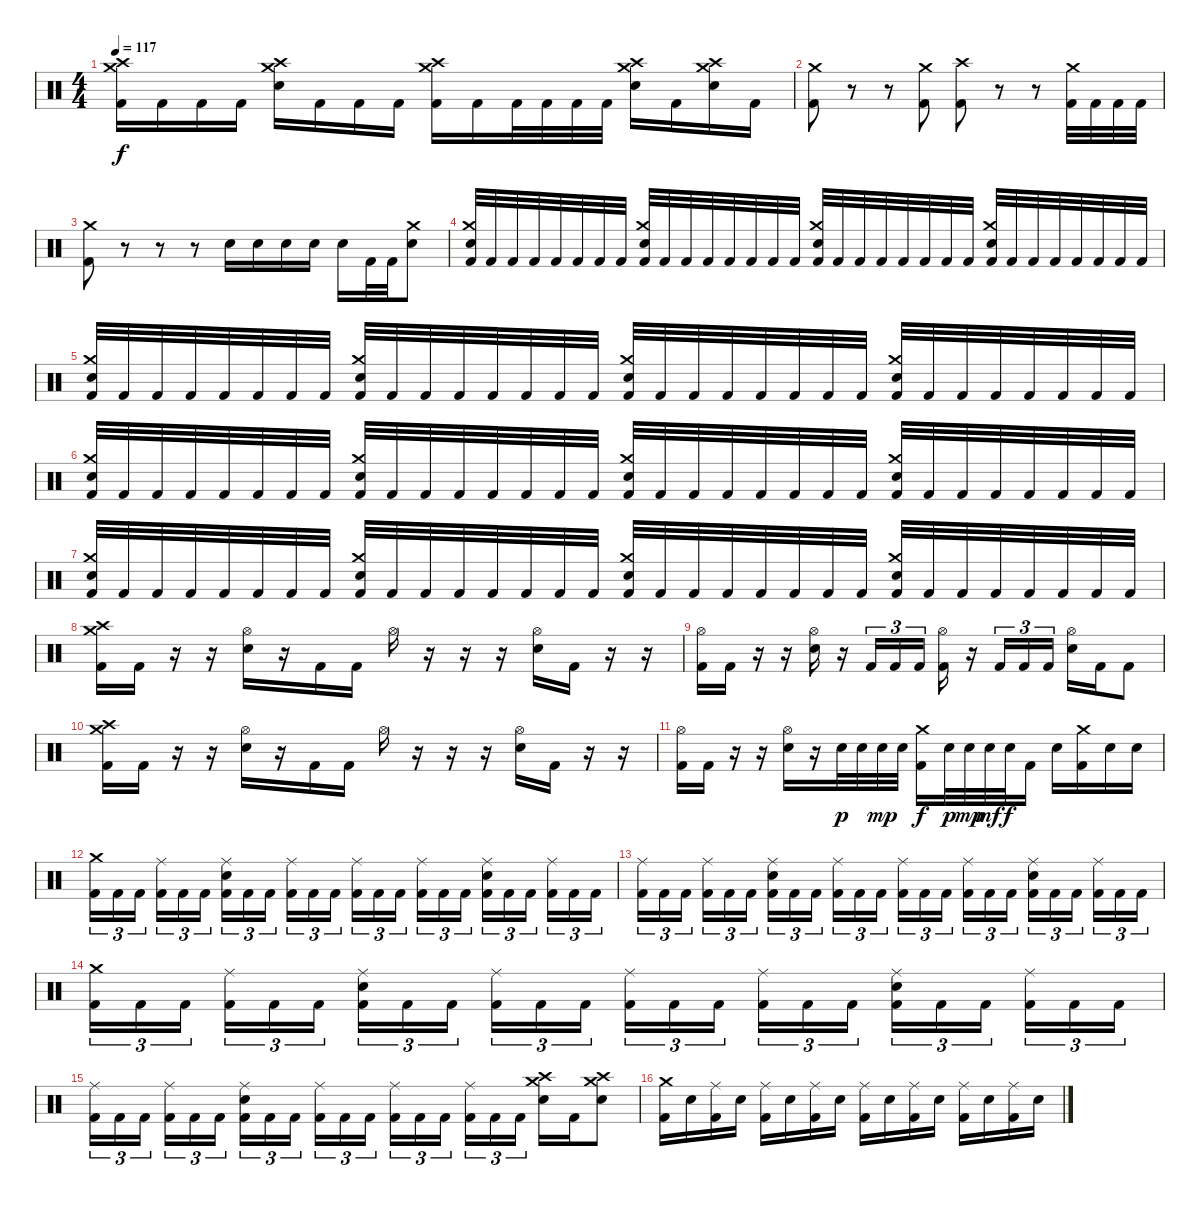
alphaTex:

\track "" {instrument percussion}
\staff {score}
\articulation defaults
\ts (4 4)
\tempo 117
\clef neutral
\ks c
("Kick (hit) 2" "Crash high (hit)" "Crash medium (hit)").16{dy f} "Kick (hit) 2".16 "Kick (hit) 2".16 "Kick (hit) 2".16 ("Electric Snare (hit)" "Crash high (hit)" "Crash medium (hit)").16 "Kick (hit) 2".16 "Kick (hit) 2".16 "Kick (hit) 2".16 ("Kick (hit) 2" "Crash high (hit)" "Crash medium (hit)").16 "Kick (hit) 2".16 "Kick (hit) 2".32 "Kick (hit) 2".32 "Kick (hit) 2".32 "Kick (hit) 2".32 ("Electric Snare (hit)" "Crash high (hit)" "Crash medium (hit)").16 "Kick (hit) 2".16 ("Electric Snare (hit)" "Crash high (hit)" "Crash medium (hit)").16 "Kick (hit) 2".16 |
("Kick (hit) 2" "Crash medium (hit)").8 r.8 r.8 ("Kick (hit) 2" "Crash medium (hit)").8 ("Kick (hit) 2" "Crash high (hit)").8 r.8 r.8 ("Kick (hit) 2" "Crash medium (hit)").32 "Kick (hit) 2".32 "Kick (hit) 2".32 "Kick (hit) 2".32 |
("Kick (hit) 2" "Crash medium (hit)").8 r.8 r.8 r.8 "Electric Snare (hit)".16 "Electric Snare (hit)".16 "Electric Snare (hit)".16 "Electric Snare (hit)".16 "Electric Snare (hit)".16 "Kick (hit) 2".32 "Kick (hit) 2".32 ("Electric Snare (hit)" "Crash medium (hit)").8 |
("Kick (hit) 2" "Electric Snare (hit)" "Crash medium (hit)").32 "Kick (hit) 2".32 "Kick (hit) 2".32 "Kick (hit) 2".32 "Kick (hit) 2".32 "Kick (hit) 2".32 "Kick (hit) 2".32 "Kick (hit) 2".32 ("Kick (hit) 2" "Electric Snare (hit)" "Crash medium (hit)").32 "Kick (hit) 2".32 "Kick (hit) 2".32 "Kick (hit) 2".32 "Kick (hit) 2".32 "Kick (hit) 2".32 "Kick (hit) 2".32 "Kick (hit) 2".32 ("Kick (hit) 2" "Electric Snare (hit)" "Crash medium (hit)").32 "Kick (hit) 2".32 "Kick (hit) 2".32 "Kick (hit) 2".32 "Kick (hit) 2".32 "Kick (hit) 2".32 "Kick (hit) 2".32 "Kick (hit) 2".32 ("Kick (hit) 2" "Electric Snare (hit)" "Crash medium (hit)").32 "Kick (hit) 2".32 "Kick (hit) 2".32 "Kick (hit) 2".32 "Kick (hit) 2".32 "Kick (hit) 2".32 "Kick (hit) 2".32 "Kick (hit) 2".32 |
("Kick (hit) 2" "Electric Snare (hit)" "Crash medium (hit)").32 "Kick (hit) 2".32 "Kick (hit) 2".32 "Kick (hit) 2".32 "Kick (hit) 2".32 "Kick (hit) 2".32 "Kick (hit) 2".32 "Kick (hit) 2".32 ("Kick (hit) 2" "Electric Snare (hit)" "Crash medium (hit)").32 "Kick (hit) 2".32 "Kick (hit) 2".32 "Kick (hit) 2".32 "Kick (hit) 2".32 "Kick (hit) 2".32 "Kick (hit) 2".32 "Kick (hit) 2".32 ("Kick (hit) 2" "Electric Snare (hit)" "Crash medium (hit)").32 "Kick (hit) 2".32 "Kick (hit) 2".32 "Kick (hit) 2".32 "Kick (hit) 2".32 "Kick (hit) 2".32 "Kick (hit) 2".32 "Kick (hit) 2".32 ("Kick (hit) 2" "Electric Snare (hit)" "Crash medium (hit)").32 "Kick (hit) 2".32 "Kick (hit) 2".32 "Kick (hit) 2".32 "Kick (hit) 2".32 "Kick (hit) 2".32 "Kick (hit) 2".32 "Kick (hit) 2".32 |
("Kick (hit) 2" "Electric Snare (hit)" "Crash medium (hit)").32 "Kick (hit) 2".32 "Kick (hit) 2".32 "Kick (hit) 2".32 "Kick (hit) 2".32 "Kick (hit) 2".32 "Kick (hit) 2".32 "Kick (hit) 2".32 ("Kick (hit) 2" "Electric Snare (hit)" "Crash medium (hit)").32 "Kick (hit) 2".32 "Kick (hit) 2".32 "Kick (hit) 2".32 "Kick (hit) 2".32 "Kick (hit) 2".32 "Kick (hit) 2".32 "Kick (hit) 2".32 ("Kick (hit) 2" "Electric Snare (hit)" "Crash medium (hit)").32 "Kick (hit) 2".32 "Kick (hit) 2".32 "Kick (hit) 2".32 "Kick (hit) 2".32 "Kick (hit) 2".32 "Kick (hit) 2".32 "Kick (hit) 2".32 ("Kick (hit) 2" "Electric Snare (hit)" "Crash medium (hit)").32 "Kick (hit) 2".32 "Kick (hit) 2".32 "Kick (hit) 2".32 "Kick (hit) 2".32 "Kick (hit) 2".32 "Kick (hit) 2".32 "Kick (hit) 2".32 |
("Kick (hit) 2" "Electric Snare (hit)" "Crash medium (hit)").32 "Kick (hit) 2".32 "Kick (hit) 2".32 "Kick (hit) 2".32 "Kick (hit) 2".32 "Kick (hit) 2".32 "Kick (hit) 2".32 "Kick (hit) 2".32 ("Kick (hit) 2" "Electric Snare (hit)" "Crash medium (hit)").32 "Kick (hit) 2".32 "Kick (hit) 2".32 "Kick (hit) 2".32 "Kick (hit) 2".32 "Kick (hit) 2".32 "Kick (hit) 2".32 "Kick (hit) 2".32 ("Kick (hit) 2" "Electric Snare (hit)" "Crash medium (hit)").32 "Kick (hit) 2".32 "Kick (hit) 2".32 "Kick (hit) 2".32 "Kick (hit) 2".32 "Kick (hit) 2".32 "Kick (hit) 2".32 "Kick (hit) 2".32 ("Kick (hit) 2" "Electric Snare (hit)" "Crash medium (hit)").32 "Kick (hit) 2".32 "Kick (hit) 2".32 "Kick (hit) 2".32 "Kick (hit) 2".32 "Kick (hit) 2".32 "Kick (hit) 2".32 "Kick (hit) 2".32 |
("Kick (hit) 2" "Crash high (hit)" "Crash medium (hit)").16 "Kick (hit) 2".16 r.16 r.16 ("Electric Snare (hit)" "Hi-Hat (open)").16 r.16 "Kick (hit) 2".16 "Kick (hit) 2".16 "Hi-Hat (open)".16 r.16 r.16 r.16 ("Electric Snare (hit)" "Hi-Hat (open)").16 "Kick (hit) 2".16 r.16 r.16 |
("Kick (hit) 2" "Hi-Hat (open)").16 "Kick (hit) 2".16 r.16 r.16 ("Electric Snare (hit)" "Hi-Hat (open)").16 r.16 "Kick (hit) 2".16{tu (3 2)} "Kick (hit) 2".16{tu (3 2)} "Kick (hit) 2".16{tu (3 2)} ("Kick (hit) 2" "Hi-Hat (open)").16 r.16 "Kick (hit) 2".16{tu (3 2)} "Kick (hit) 2".16{tu (3 2)} "Kick (hit) 2".16{tu (3 2)} ("Electric Snare (hit)" "Hi-Hat (open)").16 "Kick (hit) 2".16 "Kick (hit) 2".8 |
("Kick (hit) 2" "Crash high (hit)" "Crash medium (hit)").16 "Kick (hit) 2".16 r.16 r.16 ("Electric Snare (hit)" "Hi-Hat (open)").16 r.16 "Kick (hit) 2".16 "Kick (hit) 2".16 "Hi-Hat (open)".16 r.16 r.16 r.16 ("Electric Snare (hit)" "Hi-Hat (open)").16 "Kick (hit) 2".16 r.16 r.16 |
("Kick (hit) 2" "Hi-Hat (open)").16 "Kick (hit) 2".16 r.16 r.16 ("Electric Snare (hit)" "Hi-Hat (open)").16 r.16 "Electric Snare (hit)".32{dy p} "Electric Snare (hit)".32 "Electric Snare (hit)".32{dy mp} "Electric Snare (hit)".32 ("Kick (hit) 2" "Crash medium (hit)").16{dy f} "Electric Snare (hit)".32{dy p} "Electric Snare (hit)".32{dy mp} "Electric Snare (hit)".32{dy mf} "Electric Snare (hit)".32{dy f} "Kick (hit) 2".16 "Electric Snare (hit)".16 ("Kick (hit) 2" "Crash medium (hit)").16 "Electric Snare (hit)".16 "Electric Snare (hit)".16 |
("Kick (hit) 2" "Crash medium (hit)").16{tu (3 2)} "Kick (hit) 2".16{tu (3 2)} "Kick (hit) 2".16{tu (3 2)} ("Kick (hit) 2" "Ride (middle)").16{tu (3 2)} "Kick (hit) 2".16{tu (3 2)} "Kick (hit) 2".16{tu (3 2)} ("Kick (hit) 2" "Electric Snare (hit)" "Ride (middle)").16{tu (3 2)} "Kick (hit) 2".16{tu (3 2)} "Kick (hit) 2".16{tu (3 2)} ("Kick (hit) 2" "Ride (middle)").16{tu (3 2)} "Kick (hit) 2".16{tu (3 2)} "Kick (hit) 2".16{tu (3 2)} ("Kick (hit) 2" "Ride (middle)").16{tu (3 2)} "Kick (hit) 2".16{tu (3 2)} "Kick (hit) 2".16{tu (3 2)} ("Kick (hit) 2" "Ride (middle)").16{tu (3 2)} "Kick (hit) 2".16{tu (3 2)} "Kick (hit) 2".16{tu (3 2)} ("Kick (hit) 2" "Electric Snare (hit)" "Ride (middle)").16{tu (3 2)} "Kick (hit) 2".16{tu (3 2)} "Kick (hit) 2".16{tu (3 2)} ("Kick (hit) 2" "Ride (middle)").16{tu (3 2)} "Kick (hit) 2".16{tu (3 2)} "Kick (hit) 2".16{tu (3 2)} |
("Kick (hit) 2" "Ride (middle)").16{tu (3 2)} "Kick (hit) 2".16{tu (3 2)} "Kick (hit) 2".16{tu (3 2)} ("Kick (hit) 2" "Ride (middle)").16{tu (3 2)} "Kick (hit) 2".16{tu (3 2)} "Kick (hit) 2".16{tu (3 2)} ("Kick (hit) 2" "Electric Snare (hit)" "Ride (middle)").16{tu (3 2)} "Kick (hit) 2".16{tu (3 2)} "Kick (hit) 2".16{tu (3 2)} ("Kick (hit) 2" "Ride (middle)").16{tu (3 2)} "Kick (hit) 2".16{tu (3 2)} "Kick (hit) 2".16{tu (3 2)} ("Kick (hit) 2" "Ride (middle)").16{tu (3 2)} "Kick (hit) 2".16{tu (3 2)} "Kick (hit) 2".16{tu (3 2)} ("Kick (hit) 2" "Ride (middle)").16{tu (3 2)} "Kick (hit) 2".16{tu (3 2)} "Kick (hit) 2".16{tu (3 2)} ("Kick (hit) 2" "Electric Snare (hit)" "Ride (middle)").16{tu (3 2)} "Kick (hit) 2".16{tu (3 2)} "Kick (hit) 2".16{tu (3 2)} ("Kick (hit) 2" "Ride (middle)").16{tu (3 2)} "Kick (hit) 2".16{tu (3 2)} "Kick (hit) 2".16{tu (3 2)} |
("Kick (hit) 2" "Crash medium (hit)").16{tu (3 2)} "Kick (hit) 2".16{tu (3 2)} "Kick (hit) 2".16{tu (3 2)} ("Kick (hit) 2" "Ride (middle)").16{tu (3 2)} "Kick (hit) 2".16{tu (3 2)} "Kick (hit) 2".16{tu (3 2)} ("Kick (hit) 2" "Electric Snare (hit)" "Ride (middle)").16{tu (3 2)} "Kick (hit) 2".16{tu (3 2)} "Kick (hit) 2".16{tu (3 2)} ("Kick (hit) 2" "Ride (middle)").16{tu (3 2)} "Kick (hit) 2".16{tu (3 2)} "Kick (hit) 2".16{tu (3 2)} ("Kick (hit) 2" "Ride (middle)").16{tu (3 2)} "Kick (hit) 2".16{tu (3 2)} "Kick (hit) 2".16{tu (3 2)} ("Kick (hit) 2" "Ride (middle)").16{tu (3 2)} "Kick (hit) 2".16{tu (3 2)} "Kick (hit) 2".16{tu (3 2)} ("Kick (hit) 2" "Electric Snare (hit)" "Ride (middle)").16{tu (3 2)} "Kick (hit) 2".16{tu (3 2)} "Kick (hit) 2".16{tu (3 2)} ("Kick (hit) 2" "Ride (middle)").16{tu (3 2)} "Kick (hit) 2".16{tu (3 2)} "Kick (hit) 2".16{tu (3 2)} |
("Kick (hit) 2" "Ride (middle)").16{tu (3 2)} "Kick (hit) 2".16{tu (3 2)} "Kick (hit) 2".16{tu (3 2)} ("Kick (hit) 2" "Ride (middle)").16{tu (3 2)} "Kick (hit) 2".16{tu (3 2)} "Kick (hit) 2".16{tu (3 2)} ("Kick (hit) 2" "Electric Snare (hit)" "Ride (middle)").16{tu (3 2)} "Kick (hit) 2".16{tu (3 2)} "Kick (hit) 2".16{tu (3 2)} ("Kick (hit) 2" "Ride (middle)").16{tu (3 2)} "Kick (hit) 2".16{tu (3 2)} "Kick (hit) 2".16{tu (3 2)} ("Kick (hit) 2" "Ride (middle)").16{tu (3 2)} "Kick (hit) 2".16{tu (3 2)} "Kick (hit) 2".16{tu (3 2)} ("Kick (hit) 2" "Ride (middle)").16{tu (3 2)} "Kick (hit) 2".16{tu (3 2)} "Kick (hit) 2".16{tu (3 2)} ("Electric Snare (hit)" "Crash high (hit)" "Crash medium (hit)").16 "Kick (hit) 2".16 ("Electric Snare (hit)" "Crash high (hit)" "Crash medium (hit)").8 |
("Kick (hit) 2" "Crash medium (hit)").16 "Electric Snare (hit)".16 ("Kick (hit) 2" "Ride (middle)").16 "Electric Snare (hit)".16 ("Kick (hit) 2" "Ride (middle)").16 "Electric Snare (hit)".16 ("Kick (hit) 2" "Ride (middle)").16 "Electric Snare (hit)".16 ("Kick (hit) 2" "Ride (middle)").16 "Electric Snare (hit)".16 ("Kick (hit) 2" "Ride (middle)").16 "Electric Snare (hit)".16 ("Kick (hit) 2" "Ride (middle)").16 "Electric Snare (hit)".16 ("Kick (hit) 2" "Ride (middle)").16 "Electric Snare (hit)".16
